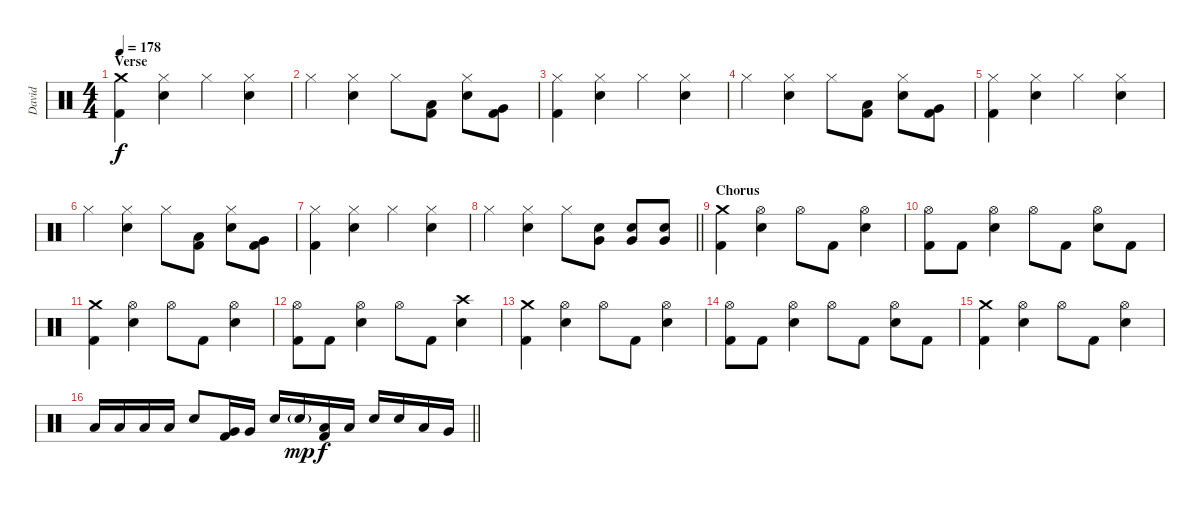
\track ("David" "David") {instrument percussion}
\staff {score}
\articulation defaults
\ts (4 4)
\section ("" "Verse")
\tempo 178
\clef neutral
\ks c
("Crash medium (hit)" "Kick (hit) 2").4{dy f} ("Hi-Hat (closed)" "Electric Snare (hit)").4 "Hi-Hat (closed)".4 ("Hi-Hat (closed)" "Electric Snare (hit)").4 |
"Hi-Hat (closed)".4 ("Hi-Hat (closed)" "Electric Snare (hit)").4 "Hi-Hat (closed)".8 ("Low Tom (hit)" "Kick (hit) 2").8 ("Hi-Hat (closed)" "Electric Snare (hit)").8 ("Very Low Tom (hit)" "Kick (hit) 2").8 |
("Hi-Hat (closed)" "Kick (hit) 2").4 ("Hi-Hat (closed)" "Electric Snare (hit)").4 "Hi-Hat (closed)".4 ("Hi-Hat (closed)" "Electric Snare (hit)").4 |
"Hi-Hat (closed)".4 ("Hi-Hat (closed)" "Electric Snare (hit)").4 "Hi-Hat (closed)".8 ("Low Tom (hit)" "Kick (hit) 2").8 ("Hi-Hat (closed)" "Electric Snare (hit)").8 ("Very Low Tom (hit)" "Kick (hit) 2").8 |
("Hi-Hat (closed)" "Kick (hit) 2").4 ("Hi-Hat (closed)" "Electric Snare (hit)").4 "Hi-Hat (closed)".4 ("Hi-Hat (closed)" "Electric Snare (hit)").4 |
"Hi-Hat (closed)".4 ("Hi-Hat (closed)" "Electric Snare (hit)").4 "Hi-Hat (closed)".8 ("Low Tom (hit)" "Kick (hit) 2").8 ("Hi-Hat (closed)" "Electric Snare (hit)").8 ("Very Low Tom (hit)" "Kick (hit) 2").8 |
("Hi-Hat (closed)" "Kick (hit) 2").4 ("Hi-Hat (closed)" "Electric Snare (hit)").4 "Hi-Hat (closed)".4 ("Hi-Hat (closed)" "Electric Snare (hit)").4 |
\barLineRight lightlight "Hi-Hat (closed)".4
("Hi-Hat (closed)" "Electric Snare (hit)").4 "Hi-Hat (closed)".8 ("Electric Snare (hit)" "Very Low Tom (hit)").8 ("Electric Snare (hit)" "Very Low Tom (hit)").8 ("Electric Snare (hit)" "Very Low Tom (hit)").8 |
\section ("" "Chorus")
("Crash medium (hit)" "Kick (hit) 2").4 ("Hi-Hat (open)" "Electric Snare (hit)").4 "Hi-Hat (open)".8 "Kick (hit) 2".8 ("Hi-Hat (open)" "Electric Snare (hit)").4 |
("Hi-Hat (open)" "Kick (hit) 2").8 "Kick (hit) 2".8 ("Hi-Hat (open)" "Electric Snare (hit)").4 "Hi-Hat (open)".8 "Kick (hit) 2".8 ("Hi-Hat (open)" "Electric Snare (hit)").8 "Kick (hit) 2".8 |
("Crash medium (hit)" "Kick (hit) 2").4 ("Hi-Hat (open)" "Electric Snare (hit)").4 "Hi-Hat (open)".8 "Kick (hit) 2".8 ("Hi-Hat (open)" "Electric Snare (hit)").4 |
("Hi-Hat (open)" "Kick (hit) 2").8 "Kick (hit) 2".8 ("Hi-Hat (open)" "Electric Snare (hit)").4 "Hi-Hat (open)".8 "Kick (hit) 2".8 ("Crash high (hit)" "Electric Snare (hit)").4 |
("Crash medium (hit)" "Kick (hit) 2").4 ("Hi-Hat (open)" "Electric Snare (hit)").4 "Hi-Hat (open)".8 "Kick (hit) 2".8 ("Hi-Hat (open)" "Electric Snare (hit)").4 |
("Hi-Hat (open)" "Kick (hit) 2").8 "Kick (hit) 2".8 ("Hi-Hat (open)" "Electric Snare (hit)").4 "Hi-Hat (open)".8 "Kick (hit) 2".8 ("Hi-Hat (open)" "Electric Snare (hit)").8 "Kick (hit) 2".8 |
("Crash medium (hit)" "Kick (hit) 2").4 ("Hi-Hat (open)" "Electric Snare (hit)").4 "Hi-Hat (open)".8 "Kick (hit) 2".8 ("Hi-Hat (open)" "Electric Snare (hit)").4 |
\barLineRight lightlight "Low Tom (hit)".16 "Low Tom (hit)".16 "Low Tom (hit)".16 "Low Tom (hit)".16 "Electric Snare (hit)".8
("Very Low Tom (hit)" "Kick (hit) 2").16 "Very Low Tom (hit)".16 "Electric Snare (hit)".16 "Electric Snare (hit)"{g}.16{dy mp} ("Low Tom (hit)" "Kick (hit) 2").16{dy f} "Low Tom (hit)".16 "Electric Snare (hit)".16 "Electric Snare (hit)".16 "Low Tom (hit)".16 "Very Low Tom (hit)".16
